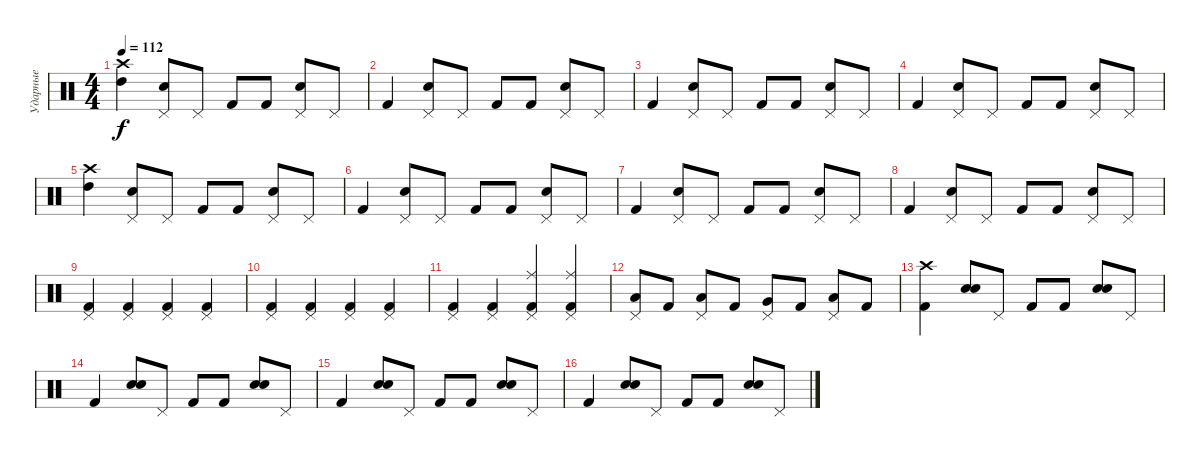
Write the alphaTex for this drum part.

\track ("Ударные" "Ударные") {instrument percussion}
\staff {score}
\articulation defaults
\ts (4 4)
\tempo 112
\clef neutral
\ks c
("Crash high (hit)" "High Tom (hit)").4{dy f} ("Pedal Hi-Hat (hit)" "Snare (hit) 2").8 "Pedal Hi-Hat (hit)".8 "Kick (hit) 2".8 "Kick (hit) 2".8 ("Pedal Hi-Hat (hit)" "Snare (hit) 2").8 "Pedal Hi-Hat (hit)".8 |
"Kick (hit) 2".4 ("Pedal Hi-Hat (hit)" "Snare (hit) 2").8 "Pedal Hi-Hat (hit)".8 "Kick (hit) 2".8 "Kick (hit) 2".8 ("Pedal Hi-Hat (hit)" "Snare (hit) 2").8 "Pedal Hi-Hat (hit)".8 |
"Kick (hit) 2".4 ("Pedal Hi-Hat (hit)" "Snare (hit) 2").8 "Pedal Hi-Hat (hit)".8 "Kick (hit) 2".8 "Kick (hit) 2".8 ("Pedal Hi-Hat (hit)" "Snare (hit) 2").8 "Pedal Hi-Hat (hit)".8 |
"Kick (hit) 2".4 ("Pedal Hi-Hat (hit)" "Snare (hit) 2").8 "Pedal Hi-Hat (hit)".8 "Kick (hit) 2".8 "Kick (hit) 2".8 ("Pedal Hi-Hat (hit)" "Snare (hit) 2").8 "Pedal Hi-Hat (hit)".8 |
("Crash high (hit)" "High Tom (hit)").4 ("Pedal Hi-Hat (hit)" "Snare (hit) 2").8 "Pedal Hi-Hat (hit)".8 "Kick (hit) 2".8 "Kick (hit) 2".8 ("Pedal Hi-Hat (hit)" "Snare (hit) 2").8 "Pedal Hi-Hat (hit)".8 |
"Kick (hit) 2".4 ("Pedal Hi-Hat (hit)" "Snare (hit) 2").8 "Pedal Hi-Hat (hit)".8 "Kick (hit) 2".8 "Kick (hit) 2".8 ("Pedal Hi-Hat (hit)" "Snare (hit) 2").8 "Pedal Hi-Hat (hit)".8 |
"Kick (hit) 2".4 ("Pedal Hi-Hat (hit)" "Snare (hit) 2").8 "Pedal Hi-Hat (hit)".8 "Kick (hit) 2".8 "Kick (hit) 2".8 ("Pedal Hi-Hat (hit)" "Snare (hit) 2").8 "Pedal Hi-Hat (hit)".8 |
"Kick (hit) 2".4 ("Pedal Hi-Hat (hit)" "Snare (hit) 2").8 "Pedal Hi-Hat (hit)".8 "Kick (hit) 2".8 "Kick (hit) 2".8 ("Pedal Hi-Hat (hit)" "Snare (hit) 2").8 "Pedal Hi-Hat (hit)".8 |
("Pedal Hi-Hat (hit)" "Kick (hit) 2").4 ("Pedal Hi-Hat (hit)" "Kick (hit) 2").4 ("Pedal Hi-Hat (hit)" "Kick (hit) 2").4 ("Pedal Hi-Hat (hit)" "Kick (hit) 2").4 |
("Pedal Hi-Hat (hit)" "Kick (hit) 2").4 ("Pedal Hi-Hat (hit)" "Kick (hit) 2").4 ("Pedal Hi-Hat (hit)" "Kick (hit) 2").4 ("Pedal Hi-Hat (hit)" "Kick (hit) 2").4 |
("Pedal Hi-Hat (hit)" "Kick (hit) 2").4 ("Pedal Hi-Hat (hit)" "Kick (hit) 2").4 ("Ride (middle)" "Pedal Hi-Hat (hit)" "Kick (hit) 2").4 ("Ride (middle)" "Pedal Hi-Hat (hit)" "Kick (hit) 2").4 |
("Pedal Hi-Hat (hit)" "Low Floor Tom (hit)").8 "Kick (hit) 2".8 ("Pedal Hi-Hat (hit)" "Low Floor Tom (hit)").8 "Kick (hit) 2".8 ("Pedal Hi-Hat (hit)" "Very Low Tom (hit)").8 "Kick (hit) 2".8 ("Pedal Hi-Hat (hit)" "Low Tom (hit)").8 "Kick (hit) 2".8 |
("Crash high (hit)" "Kick (hit) 2").4 ("Electric Snare (hit)" "Snare (hit) 2").8 "Pedal Hi-Hat (hit)".8 "Kick (hit) 2".8 "Kick (hit) 2".8 ("Electric Snare (hit)" "Snare (hit) 2").8 "Pedal Hi-Hat (hit)".8 |
"Kick (hit) 2".4 ("Electric Snare (hit)" "Snare (hit) 2").8 "Pedal Hi-Hat (hit)".8 "Kick (hit) 2".8 "Kick (hit) 2".8 ("Electric Snare (hit)" "Snare (hit) 2").8 "Pedal Hi-Hat (hit)".8 |
"Kick (hit) 2".4 ("Electric Snare (hit)" "Snare (hit) 2").8 "Pedal Hi-Hat (hit)".8 "Kick (hit) 2".8 "Kick (hit) 2".8 ("Electric Snare (hit)" "Snare (hit) 2").8 "Pedal Hi-Hat (hit)".8 |
"Kick (hit) 2".4 ("Electric Snare (hit)" "Snare (hit) 2").8 "Pedal Hi-Hat (hit)".8 "Kick (hit) 2".8 "Kick (hit) 2".8 ("Electric Snare (hit)" "Snare (hit) 2").8 "Pedal Hi-Hat (hit)".8
